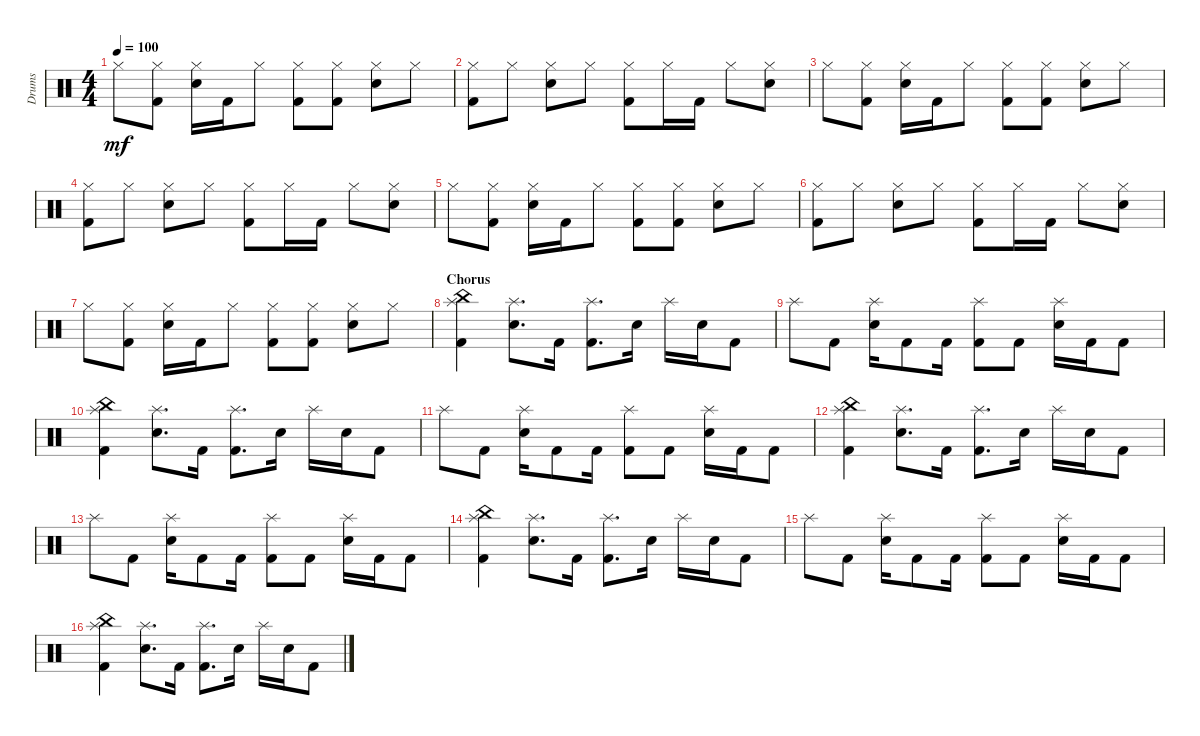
\defaultSystemsLayout 4
\bracketExtendMode groupsimilarinstruments
\otherSystemsTrackNameOrientation horizontal
\track ("Prakarsh" "Drums") {instrument percussion}
\staff {score}
\articulation defaults
\ts (4 4)
\tempo 100
\clef neutral
\ks c "Hi-Hat (closed)".8{dy mf beam Down}
("Hi-Hat (closed)" "Kick (hit) 2").8{beam Down} ("Hi-Hat (closed)" "Snare (hit) 2").16{beam Down} "Kick (hit) 2".16{beam Down} "Hi-Hat (closed)".8{beam Down} ("Hi-Hat (closed)" "Kick (hit) 2").8{beam Down} ("Hi-Hat (closed)" "Kick (hit) 2").8{beam Down} ("Hi-Hat (closed)" "Snare (hit) 2").8{beam Down} "Hi-Hat (closed)".8{beam Down} |
("Hi-Hat (closed)" "Kick (hit) 2").8{beam Down} "Hi-Hat (closed)".8{beam Down} ("Hi-Hat (closed)" "Snare (hit) 2").8{beam Down} "Hi-Hat (closed)".8{beam Down} ("Hi-Hat (closed)" "Kick (hit) 2").8{beam Down} "Hi-Hat (closed)".16{beam Down} "Kick (hit) 2".16{beam Down} "Hi-Hat (closed)".8{beam Down} ("Hi-Hat (closed)" "Snare (hit) 2").8{beam Down} |
"Hi-Hat (closed)".8{beam Down} ("Hi-Hat (closed)" "Kick (hit) 2").8{beam Down} ("Hi-Hat (closed)" "Snare (hit) 2").16{beam Down} "Kick (hit) 2".16{beam Down} "Hi-Hat (closed)".8{beam Down} ("Hi-Hat (closed)" "Kick (hit) 2").8{beam Down} ("Hi-Hat (closed)" "Kick (hit) 2").8{beam Down} ("Hi-Hat (closed)" "Snare (hit) 2").8{beam Down} "Hi-Hat (closed)".8{beam Down} |
("Hi-Hat (closed)" "Kick (hit) 2").8{beam Down} "Hi-Hat (closed)".8{beam Down} ("Hi-Hat (closed)" "Snare (hit) 2").8{beam Down} "Hi-Hat (closed)".8{beam Down} ("Hi-Hat (closed)" "Kick (hit) 2").8{beam Down} "Hi-Hat (closed)".16{beam Down} "Kick (hit) 2".16{beam Down} "Hi-Hat (closed)".8{beam Down} ("Hi-Hat (closed)" "Snare (hit) 2").8{beam Down} |
"Hi-Hat (closed)".8{beam Down} ("Hi-Hat (closed)" "Kick (hit) 2").8{beam Down} ("Hi-Hat (closed)" "Snare (hit) 2").16{beam Down} "Kick (hit) 2".16{beam Down} "Hi-Hat (closed)".8{beam Down} ("Hi-Hat (closed)" "Kick (hit) 2").8{beam Down} ("Hi-Hat (closed)" "Kick (hit) 2").8{beam Down} ("Hi-Hat (closed)" "Snare (hit) 2").8{beam Down} "Hi-Hat (closed)".8{beam Down} |
("Hi-Hat (closed)" "Kick (hit) 2").8{beam Down} "Hi-Hat (closed)".8{beam Down} ("Hi-Hat (closed)" "Snare (hit) 2").8{beam Down} "Hi-Hat (closed)".8{beam Down} ("Hi-Hat (closed)" "Kick (hit) 2").8{beam Down} "Hi-Hat (closed)".16{beam Down} "Kick (hit) 2".16{beam Down} "Hi-Hat (closed)".8{beam Down} ("Hi-Hat (closed)" "Snare (hit) 2").8{beam Down} |
"Hi-Hat (closed)".8{beam Down} ("Hi-Hat (closed)" "Kick (hit) 2").8{beam Down} ("Hi-Hat (closed)" "Snare (hit) 2").16{beam Down} "Kick (hit) 2".16{beam Down} "Hi-Hat (closed)".8{beam Down} ("Hi-Hat (closed)" "Kick (hit) 2").8{beam Down} ("Hi-Hat (closed)" "Kick (hit) 2").8{beam Down} ("Hi-Hat (closed)" "Snare (hit) 2").8{beam Down} "Hi-Hat (closed)".8{beam Down} |
\section ("" "Chorus")
("Kick (hit) 2" "China (hit)" "Splash (hit)").4{beam Down} ("Snare (hit) 2" "Splash (hit)").8{d beam Down} "Kick (hit) 2".16{beam Down} ("Kick (hit) 2" "Splash (hit)").8{d beam Down} "Snare (hit) 2".16{beam Down} "Splash (hit)".16{beam Down} "Snare (hit) 2".16{beam Down} "Kick (hit) 2".8{beam Down} |
"Splash (hit)".8{beam Down} "Kick (hit) 2".8{beam Down} ("Snare (hit) 2" "Splash (hit)").16{beam Down} "Kick (hit) 2".8{beam Down} "Kick (hit) 2".16{beam Down} ("Kick (hit) 2" "Splash (hit)").8{beam Down} "Kick (hit) 2".8{beam Down} ("Snare (hit) 2" "Splash (hit)").16{beam Down} "Kick (hit) 2".16{beam Down} "Kick (hit) 2".8{beam Down} |
("Kick (hit) 2" "China (hit)" "Splash (hit)").4{beam Down} ("Snare (hit) 2" "Splash (hit)").8{d beam Down} "Kick (hit) 2".16{beam Down} ("Kick (hit) 2" "Splash (hit)").8{d beam Down} "Snare (hit) 2".16{beam Down} "Splash (hit)".16{beam Down} "Snare (hit) 2".16{beam Down} "Kick (hit) 2".8{beam Down} |
"Splash (hit)".8{beam Down} "Kick (hit) 2".8{beam Down} ("Snare (hit) 2" "Splash (hit)").16{beam Down} "Kick (hit) 2".8{beam Down} "Kick (hit) 2".16{beam Down} ("Kick (hit) 2" "Splash (hit)").8{beam Down} "Kick (hit) 2".8{beam Down} ("Snare (hit) 2" "Splash (hit)").16{beam Down} "Kick (hit) 2".16{beam Down} "Kick (hit) 2".8{beam Down} |
("Kick (hit) 2" "China (hit)" "Splash (hit)").4{beam Down} ("Snare (hit) 2" "Splash (hit)").8{d beam Down} "Kick (hit) 2".16{beam Down} ("Kick (hit) 2" "Splash (hit)").8{d beam Down} "Snare (hit) 2".16{beam Down} "Splash (hit)".16{beam Down} "Snare (hit) 2".16{beam Down} "Kick (hit) 2".8{beam Down} |
"Splash (hit)".8{beam Down} "Kick (hit) 2".8{beam Down} ("Snare (hit) 2" "Splash (hit)").16{beam Down} "Kick (hit) 2".8{beam Down} "Kick (hit) 2".16{beam Down} ("Kick (hit) 2" "Splash (hit)").8{beam Down} "Kick (hit) 2".8{beam Down} ("Snare (hit) 2" "Splash (hit)").16{beam Down} "Kick (hit) 2".16{beam Down} "Kick (hit) 2".8{beam Down} |
("Kick (hit) 2" "China (hit)" "Splash (hit)").4{beam Down} ("Snare (hit) 2" "Splash (hit)").8{d beam Down} "Kick (hit) 2".16{beam Down} ("Kick (hit) 2" "Splash (hit)").8{d beam Down} "Snare (hit) 2".16{beam Down} "Splash (hit)".16{beam Down} "Snare (hit) 2".16{beam Down} "Kick (hit) 2".8{beam Down} |
"Splash (hit)".8{beam Down} "Kick (hit) 2".8{beam Down} ("Snare (hit) 2" "Splash (hit)").16{beam Down} "Kick (hit) 2".8{beam Down} "Kick (hit) 2".16{beam Down} ("Kick (hit) 2" "Splash (hit)").8{beam Down} "Kick (hit) 2".8{beam Down} ("Snare (hit) 2" "Splash (hit)").16{beam Down} "Kick (hit) 2".16{beam Down} "Kick (hit) 2".8{beam Down} |
("Kick (hit) 2" "China (hit)" "Splash (hit)").4{beam Down} ("Snare (hit) 2" "Splash (hit)").8{d beam Down} "Kick (hit) 2".16{beam Down} ("Kick (hit) 2" "Splash (hit)").8{d beam Down} "Snare (hit) 2".16{beam Down} "Splash (hit)".16{beam Down} "Snare (hit) 2".16{beam Down} "Kick (hit) 2".8{beam Down}
